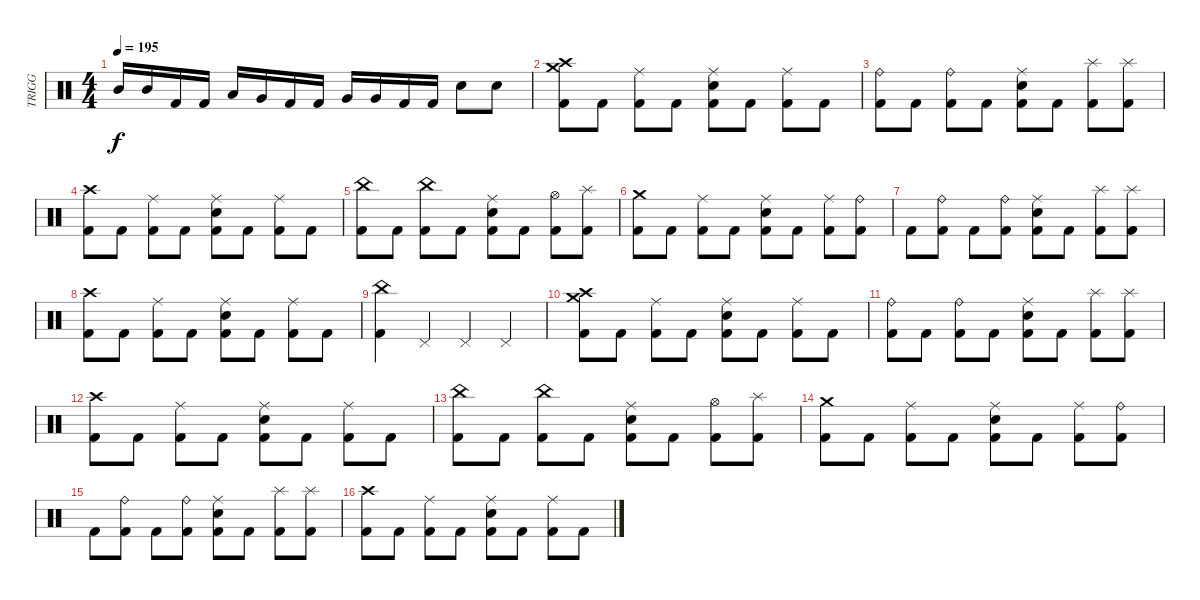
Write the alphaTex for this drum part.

\track ("TRIGG" "TRIGG") {instrument percussion}
\staff {score}
\articulation defaults
\ts (4 4)
\tempo 195
\clef neutral
\ks c "Mid Tom (hit)".16{dy f} "Mid Tom (hit)".16 "Kick (hit) 2".16 "Kick (hit) 2".16 "Low Tom (hit)".16 "Very Low Tom (hit)".16 "Kick (hit) 2".16 "Kick (hit) 2".16 "Very Low Tom (hit)".16 "Very Low Tom (hit)".16 "Kick (hit) 2".16 "Kick (hit) 2".16 "Electric Snare (hit)".8 "Electric Snare (hit)".8
|
("Crash medium (hit)" "Crash high (hit)" "Kick (hit) 2").8 "Kick (hit) 2".8 ("Ride (middle)" "Kick (hit) 2").8 "Kick (hit) 2".8 ("Ride (middle)" "Electric Snare (hit)" "Kick (hit) 2").8 "Kick (hit) 2".8 ("Ride (middle)" "Kick (hit) 2").8 "Kick (hit) 2".8 |
("Ride (bell)" "Kick (hit) 2").8 "Kick (hit) 2".8 ("Ride (bell)" "Kick (hit) 2").8 "Kick (hit) 2".8 ("Ride (middle)" "Electric Snare (hit)" "Kick (hit) 2").8 "Kick (hit) 2".8 ("Splash (hit)" "Kick (hit) 2").8 ("Splash (hit)" "Kick (hit) 2").8 |
("Crash high (hit)" "Kick (hit) 2").8 "Kick (hit) 2".8 ("Ride (middle)" "Kick (hit) 2").8 "Kick (hit) 2".8 ("Ride (middle)" "Electric Snare (hit)" "Kick (hit) 2").8 "Kick (hit) 2".8 ("Ride (middle)" "Kick (hit) 2").8 "Kick (hit) 2".8 |
("China (hit)" "Kick (hit) 2").8 "Kick (hit) 2".8 ("China (hit)" "Kick (hit) 2").8 "Kick (hit) 2".8 ("Ride (middle)" "Electric Snare (hit)" "Kick (hit) 2").8 "Kick (hit) 2".8 ("Hi-Hat (open)" "Kick (hit) 2").8 ("Splash (hit)" "Kick (hit) 2").8 |
("Crash medium (hit)" "Kick (hit) 2").8 "Kick (hit) 2".8 ("Ride (middle)" "Kick (hit) 2").8 "Kick (hit) 2".8 ("Ride (middle)" "Electric Snare (hit)" "Kick (hit) 2").8 "Kick (hit) 2".8 ("Ride (middle)" "Kick (hit) 2").8 ("Ride (bell)" "Kick (hit) 2").8 |
"Kick (hit) 2".8 ("Ride (bell)" "Kick (hit) 2").8 "Kick (hit) 2".8 ("Ride (bell)" "Kick (hit) 2").8 ("Ride (middle)" "Electric Snare (hit)" "Kick (hit) 2").8 "Kick (hit) 2".8 ("Splash (hit)" "Kick (hit) 2").8 ("Splash (hit)" "Kick (hit) 2").8 |
("Crash high (hit)" "Kick (hit) 2").8 "Kick (hit) 2".8 ("Ride (middle)" "Kick (hit) 2").8 "Kick (hit) 2".8 ("Ride (middle)" "Electric Snare (hit)" "Kick (hit) 2").8 "Kick (hit) 2".8 ("Ride (middle)" "Kick (hit) 2").8 "Kick (hit) 2".8 |
("China (hit)" "Kick (hit) 2").4 "Pedal Hi-Hat (hit)".4 "Pedal Hi-Hat (hit)".4 "Pedal Hi-Hat (hit)".4 |
("Crash medium (hit)" "Crash high (hit)" "Kick (hit) 2").8 "Kick (hit) 2".8 ("Ride (middle)" "Kick (hit) 2").8 "Kick (hit) 2".8 ("Ride (middle)" "Electric Snare (hit)" "Kick (hit) 2").8 "Kick (hit) 2".8 ("Ride (middle)" "Kick (hit) 2").8 "Kick (hit) 2".8 |
("Ride (bell)" "Kick (hit) 2").8 "Kick (hit) 2".8 ("Ride (bell)" "Kick (hit) 2").8 "Kick (hit) 2".8 ("Ride (middle)" "Electric Snare (hit)" "Kick (hit) 2").8 "Kick (hit) 2".8 ("Splash (hit)" "Kick (hit) 2").8 ("Splash (hit)" "Kick (hit) 2").8 |
("Crash high (hit)" "Kick (hit) 2").8 "Kick (hit) 2".8 ("Ride (middle)" "Kick (hit) 2").8 "Kick (hit) 2".8 ("Ride (middle)" "Electric Snare (hit)" "Kick (hit) 2").8 "Kick (hit) 2".8 ("Ride (middle)" "Kick (hit) 2").8 "Kick (hit) 2".8 |
("China (hit)" "Kick (hit) 2").8 "Kick (hit) 2".8 ("China (hit)" "Kick (hit) 2").8 "Kick (hit) 2".8 ("Ride (middle)" "Electric Snare (hit)" "Kick (hit) 2").8 "Kick (hit) 2".8 ("Hi-Hat (open)" "Kick (hit) 2").8 ("Splash (hit)" "Kick (hit) 2").8 |
("Crash medium (hit)" "Kick (hit) 2").8 "Kick (hit) 2".8 ("Ride (middle)" "Kick (hit) 2").8 "Kick (hit) 2".8 ("Ride (middle)" "Electric Snare (hit)" "Kick (hit) 2").8 "Kick (hit) 2".8 ("Ride (middle)" "Kick (hit) 2").8 ("Ride (bell)" "Kick (hit) 2").8 |
"Kick (hit) 2".8 ("Ride (bell)" "Kick (hit) 2").8 "Kick (hit) 2".8 ("Ride (bell)" "Kick (hit) 2").8 ("Ride (middle)" "Electric Snare (hit)" "Kick (hit) 2").8 "Kick (hit) 2".8 ("Splash (hit)" "Kick (hit) 2").8 ("Splash (hit)" "Kick (hit) 2").8 |
("Crash high (hit)" "Kick (hit) 2").8 "Kick (hit) 2".8 ("Ride (middle)" "Kick (hit) 2").8 "Kick (hit) 2".8 ("Ride (middle)" "Electric Snare (hit)" "Kick (hit) 2").8 "Kick (hit) 2".8 ("Ride (middle)" "Kick (hit) 2").8 "Kick (hit) 2".8
